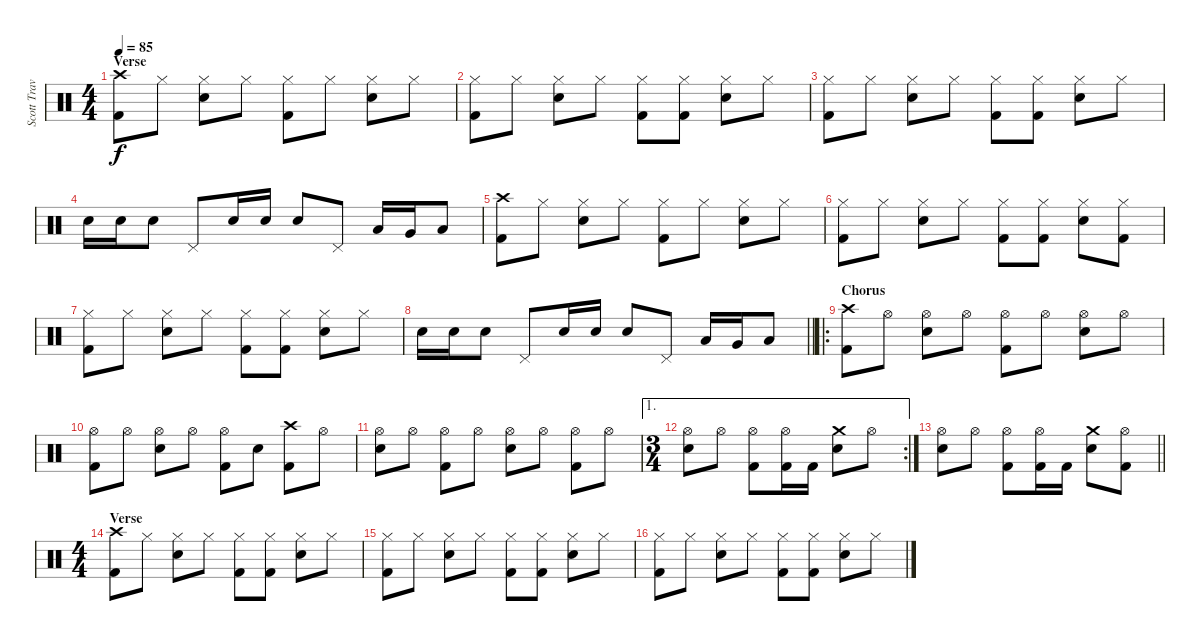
\track ("Scott Travis" "Scott Trav") {instrument percussion}
\staff {score}
\articulation defaults
\ts (4 4)
\section ("" "Verse")
\tempo 85
\clef neutral
\ks c
("Crash high (hit)" "Kick (hit) 2").8{dy f} "Hi-Hat (closed)".8 ("Hi-Hat (closed)" "Snare (hit) 2").8 "Hi-Hat (closed)".8 ("Hi-Hat (closed)" "Kick (hit) 2").8 "Hi-Hat (closed)".8 ("Hi-Hat (closed)" "Snare (hit) 2").8 "Hi-Hat (closed)".8 |
("Hi-Hat (closed)" "Kick (hit) 2").8 "Hi-Hat (closed)".8 ("Hi-Hat (closed)" "Snare (hit) 2").8 "Hi-Hat (closed)".8 ("Hi-Hat (closed)" "Kick (hit) 2").8 ("Hi-Hat (closed)" "Kick (hit) 2").8 ("Hi-Hat (closed)" "Snare (hit) 2").8 "Hi-Hat (closed)".8 |
("Hi-Hat (closed)" "Kick (hit) 2").8 "Hi-Hat (closed)".8 ("Hi-Hat (closed)" "Snare (hit) 2").8 "Hi-Hat (closed)".8 ("Hi-Hat (closed)" "Kick (hit) 2").8 ("Hi-Hat (closed)" "Kick (hit) 2").8 ("Hi-Hat (closed)" "Snare (hit) 2").8 "Hi-Hat (closed)".8 |
"Snare (hit) 2".16 "Snare (hit) 2".16 "Snare (hit) 2".8 "Pedal Hi-Hat (hit)".8 "Snare (hit) 2".16 "Snare (hit) 2".16 "Snare (hit) 2".8 "Pedal Hi-Hat (hit)".8 "Low Tom (hit)".16 "Very Low Tom (hit)".16 "Low Floor Tom (hit)".8 |
("Crash high (hit)" "Kick (hit) 2").8 "Hi-Hat (closed)".8 ("Hi-Hat (closed)" "Snare (hit) 2").8 "Hi-Hat (closed)".8 ("Hi-Hat (closed)" "Kick (hit) 2").8 "Hi-Hat (closed)".8 ("Hi-Hat (closed)" "Snare (hit) 2").8 "Hi-Hat (closed)".8 |
("Hi-Hat (closed)" "Kick (hit) 2").8 "Hi-Hat (closed)".8 ("Hi-Hat (closed)" "Snare (hit) 2").8 "Hi-Hat (closed)".8 ("Hi-Hat (closed)" "Kick (hit) 2").8 ("Hi-Hat (closed)" "Kick (hit) 2").8 ("Hi-Hat (closed)" "Snare (hit) 2").8 ("Hi-Hat (closed)" "Kick (hit) 2").8 |
("Hi-Hat (closed)" "Kick (hit) 2").8 "Hi-Hat (closed)".8 ("Hi-Hat (closed)" "Snare (hit) 2").8 "Hi-Hat (closed)".8 ("Hi-Hat (closed)" "Kick (hit) 2").8 ("Hi-Hat (closed)" "Kick (hit) 2").8 ("Hi-Hat (closed)" "Snare (hit) 2").8 "Hi-Hat (closed)".8 |
\barLineRight lightlight "Snare (hit) 2".16 "Snare (hit) 2".16 "Snare (hit) 2".8 "Pedal Hi-Hat (hit)".8 "Snare (hit) 2".16 "Snare (hit) 2".16 "Snare (hit) 2".8 "Pedal Hi-Hat (hit)".8 "Low Tom (hit)".16 "Very Low Tom (hit)".16 "Low Floor Tom (hit)".8
|
\ro
\section ("" "Chorus")
("Crash high (hit)" "Kick (hit) 2").8 "Hi-Hat (open)".8 ("Hi-Hat (open)" "Snare (hit) 2").8 "Hi-Hat (open)".8 ("Hi-Hat (open)" "Kick (hit) 2").8 "Hi-Hat (open)".8 ("Hi-Hat (open)" "Snare (hit) 2").8 "Hi-Hat (open)".8 |
("Hi-Hat (open)" "Kick (hit) 2").8 "Hi-Hat (open)".8 ("Hi-Hat (open)" "Snare (hit) 2").8 "Hi-Hat (open)".8 ("Hi-Hat (open)" "Kick (hit) 2").8 "Snare (hit) 2".8 ("Crash high (hit)" "Kick (hit) 2").8 "Hi-Hat (open)".8 |
("Hi-Hat (open)" "Snare (hit) 2").8 "Hi-Hat (open)".8 ("Hi-Hat (open)" "Kick (hit) 2").8 "Hi-Hat (open)".8 ("Hi-Hat (open)" "Snare (hit) 2").8 "Hi-Hat (open)".8 ("Hi-Hat (open)" "Kick (hit) 2").8 "Hi-Hat (open)".8 |
\ae 1
\rc 2
\ts (3 4)
("Hi-Hat (open)" "Snare (hit) 2").8 "Hi-Hat (open)".8 ("Hi-Hat (open)" "Kick (hit) 2").8 ("Hi-Hat (open)" "Kick (hit) 2").16 "Kick (hit) 2".16 ("Crash medium (hit)" "Snare (hit) 2").8 "Hi-Hat (open)".8 |
\barLineRight lightlight
("Hi-Hat (open)" "Snare (hit) 2").8 "Hi-Hat (open)".8 ("Hi-Hat (open)" "Kick (hit) 2").8 ("Hi-Hat (open)" "Kick (hit) 2").16 "Kick (hit) 2".16 ("Crash medium (hit)" "Snare (hit) 2").8 ("Hi-Hat (open)" "Kick (hit) 2").8 |
\ts (4 4)
\section ("" "Verse")
("Crash high (hit)" "Kick (hit) 2").8 "Hi-Hat (closed)".8 ("Hi-Hat (closed)" "Snare (hit) 2").8 "Hi-Hat (closed)".8 ("Hi-Hat (closed)" "Kick (hit) 2").8 ("Hi-Hat (closed)" "Kick (hit) 2").8 ("Hi-Hat (closed)" "Snare (hit) 2").8 "Hi-Hat (closed)".8 |
("Hi-Hat (closed)" "Kick (hit) 2").8 "Hi-Hat (closed)".8 ("Hi-Hat (closed)" "Snare (hit) 2").8 "Hi-Hat (closed)".8 ("Hi-Hat (closed)" "Kick (hit) 2").8 ("Hi-Hat (closed)" "Kick (hit) 2").8 ("Hi-Hat (closed)" "Snare (hit) 2").8 "Hi-Hat (closed)".8 |
("Hi-Hat (closed)" "Kick (hit) 2").8 "Hi-Hat (closed)".8 ("Hi-Hat (closed)" "Snare (hit) 2").8 "Hi-Hat (closed)".8 ("Hi-Hat (closed)" "Kick (hit) 2").8 ("Hi-Hat (closed)" "Kick (hit) 2").8 ("Hi-Hat (closed)" "Snare (hit) 2").8 "Hi-Hat (closed)".8
